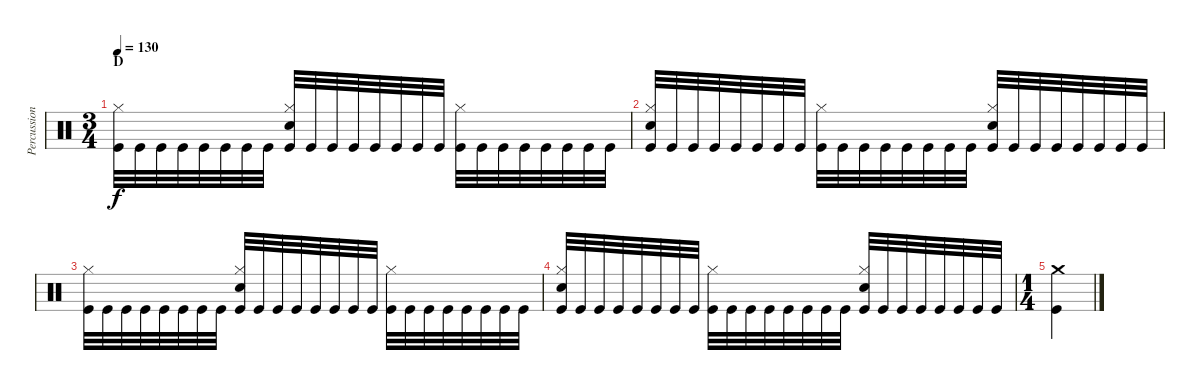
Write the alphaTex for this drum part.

\track ("Percussion" "Percussion") {instrument percussion}
\staff {score}
\articulation defaults
\ts (3 4)
\section ("" "D")
\tempo 130
\clef neutral
\ks c
("Kick (hit)" "Hi-Hat (closed)").32{dy f} "Kick (hit)".32 "Kick (hit)".32 "Kick (hit)".32 "Kick (hit)".32 "Kick (hit)".32 "Kick (hit)".32 "Kick (hit)".32 ("Kick (hit)" "Hi-Hat (closed)" "Snare (hit) 2").32 "Kick (hit)".32 "Kick (hit)".32 "Kick (hit)".32 "Kick (hit)".32 "Kick (hit)".32 "Kick (hit)".32 "Kick (hit)".32 ("Kick (hit)" "Hi-Hat (closed)").32 "Kick (hit)".32 "Kick (hit)".32 "Kick (hit)".32 "Kick (hit)".32 "Kick (hit)".32 "Kick (hit)".32 "Kick (hit)".32 |
("Kick (hit)" "Hi-Hat (closed)" "Snare (hit) 2").32 "Kick (hit)".32 "Kick (hit)".32 "Kick (hit)".32 "Kick (hit)".32 "Kick (hit)".32 "Kick (hit)".32 "Kick (hit)".32 ("Kick (hit)" "Hi-Hat (closed)").32 "Kick (hit)".32 "Kick (hit)".32 "Kick (hit)".32 "Kick (hit)".32 "Kick (hit)".32 "Kick (hit)".32 "Kick (hit)".32 ("Kick (hit)" "Hi-Hat (closed)" "Snare (hit) 2").32 "Kick (hit)".32 "Kick (hit)".32 "Kick (hit)".32 "Kick (hit)".32 "Kick (hit)".32 "Kick (hit)".32 "Kick (hit)".32 |
("Kick (hit)" "Hi-Hat (closed)").32 "Kick (hit)".32 "Kick (hit)".32 "Kick (hit)".32 "Kick (hit)".32 "Kick (hit)".32 "Kick (hit)".32 "Kick (hit)".32 ("Kick (hit)" "Hi-Hat (closed)" "Snare (hit) 2").32 "Kick (hit)".32 "Kick (hit)".32 "Kick (hit)".32 "Kick (hit)".32 "Kick (hit)".32 "Kick (hit)".32 "Kick (hit)".32 ("Kick (hit)" "Hi-Hat (closed)").32 "Kick (hit)".32 "Kick (hit)".32 "Kick (hit)".32 "Kick (hit)".32 "Kick (hit)".32 "Kick (hit)".32 "Kick (hit)".32 |
("Kick (hit)" "Hi-Hat (closed)" "Snare (hit) 2").32 "Kick (hit)".32 "Kick (hit)".32 "Kick (hit)".32 "Kick (hit)".32 "Kick (hit)".32 "Kick (hit)".32 "Kick (hit)".32 ("Kick (hit)" "Hi-Hat (closed)").32 "Kick (hit)".32 "Kick (hit)".32 "Kick (hit)".32 "Kick (hit)".32 "Kick (hit)".32 "Kick (hit)".32 "Kick (hit)".32 ("Kick (hit)" "Hi-Hat (closed)" "Snare (hit) 2").32 "Kick (hit)".32 "Kick (hit)".32 "Kick (hit)".32 "Kick (hit)".32 "Kick (hit)".32 "Kick (hit)".32 "Kick (hit)".32 |
\ts (1 4)
("Kick (hit)" "Crash medium (hit)").4
